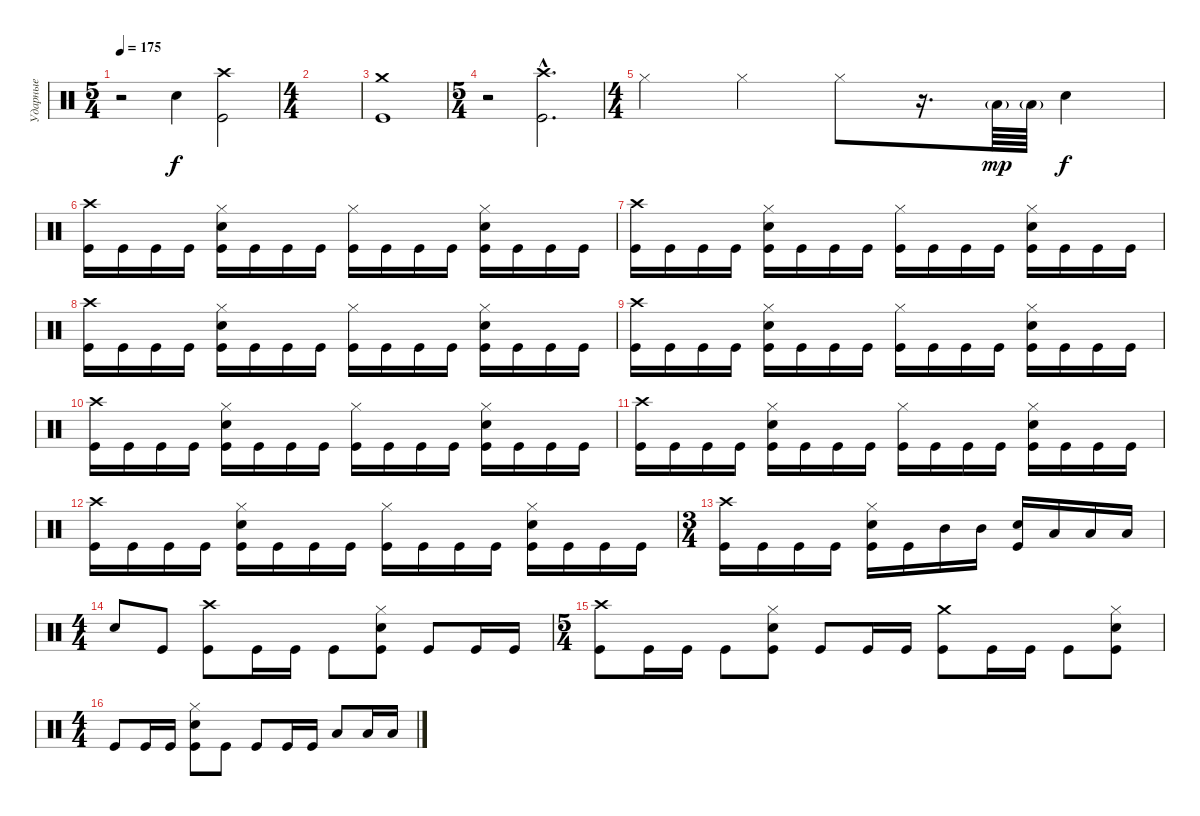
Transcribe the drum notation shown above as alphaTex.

\track ("Ударные" "Ударные") {instrument percussion}
\staff {score}
\articulation defaults
\ts (5 4)
\tempo 175
\clef neutral
\ks c
r.2{dy f} "Electric Snare (hit)".4 ("Crash high (hit)" "Kick (hit)").2 |
\ts (4 4)
|
("Crash medium (hit)" "Kick (hit)").1 |
\ts (5 4)
r.2 ("Crash high (hit)"{hac} "Kick (hit)"{hac}).2{d} |
\ts (4 4)
"Hi-Hat (closed)".4 "Hi-Hat (closed)".4 "Hi-Hat (closed)".8 r.16{d} "Low Tom (hit)"{g}.64{dy mp} "Low Tom (hit)"{g}.64 "Electric Snare (hit)".4{dy f} |
("Crash high (hit)" "Kick (hit)").16 "Kick (hit)".16 "Kick (hit)".16 "Kick (hit)".16 ("Hi-Hat (closed)" "Electric Snare (hit)" "Kick (hit)").16 "Kick (hit)".16 "Kick (hit)".16 "Kick (hit)".16 ("Hi-Hat (closed)" "Kick (hit)").16 "Kick (hit)".16 "Kick (hit)".16 "Kick (hit)".16 ("Hi-Hat (closed)" "Electric Snare (hit)" "Kick (hit)").16 "Kick (hit)".16 "Kick (hit)".16 "Kick (hit)".16 |
("Crash high (hit)" "Kick (hit)").16 "Kick (hit)".16 "Kick (hit)".16 "Kick (hit)".16 ("Hi-Hat (closed)" "Electric Snare (hit)" "Kick (hit)").16 "Kick (hit)".16 "Kick (hit)".16 "Kick (hit)".16 ("Hi-Hat (closed)" "Kick (hit)").16 "Kick (hit)".16 "Kick (hit)".16 "Kick (hit)".16 ("Hi-Hat (closed)" "Electric Snare (hit)" "Kick (hit)").16 "Kick (hit)".16 "Kick (hit)".16 "Kick (hit)".16 |
("Crash high (hit)" "Kick (hit)").16 "Kick (hit)".16 "Kick (hit)".16 "Kick (hit)".16 ("Hi-Hat (closed)" "Electric Snare (hit)" "Kick (hit)").16 "Kick (hit)".16 "Kick (hit)".16 "Kick (hit)".16 ("Hi-Hat (closed)" "Kick (hit)").16 "Kick (hit)".16 "Kick (hit)".16 "Kick (hit)".16 ("Hi-Hat (closed)" "Electric Snare (hit)" "Kick (hit)").16 "Kick (hit)".16 "Kick (hit)".16 "Kick (hit)".16 |
("Crash high (hit)" "Kick (hit)").16 "Kick (hit)".16 "Kick (hit)".16 "Kick (hit)".16 ("Hi-Hat (closed)" "Electric Snare (hit)" "Kick (hit)").16 "Kick (hit)".16 "Kick (hit)".16 "Kick (hit)".16 ("Hi-Hat (closed)" "Kick (hit)").16 "Kick (hit)".16 "Kick (hit)".16 "Kick (hit)".16 ("Hi-Hat (closed)" "Electric Snare (hit)" "Kick (hit)").16 "Kick (hit)".16 "Kick (hit)".16 "Kick (hit)".16 |
("Crash high (hit)" "Kick (hit)").16 "Kick (hit)".16 "Kick (hit)".16 "Kick (hit)".16 ("Hi-Hat (closed)" "Electric Snare (hit)" "Kick (hit)").16 "Kick (hit)".16 "Kick (hit)".16 "Kick (hit)".16 ("Hi-Hat (closed)" "Kick (hit)").16 "Kick (hit)".16 "Kick (hit)".16 "Kick (hit)".16 ("Hi-Hat (closed)" "Electric Snare (hit)" "Kick (hit)").16 "Kick (hit)".16 "Kick (hit)".16 "Kick (hit)".16 |
("Crash high (hit)" "Kick (hit)").16 "Kick (hit)".16 "Kick (hit)".16 "Kick (hit)".16 ("Hi-Hat (closed)" "Electric Snare (hit)" "Kick (hit)").16 "Kick (hit)".16 "Kick (hit)".16 "Kick (hit)".16 ("Hi-Hat (closed)" "Kick (hit)").16 "Kick (hit)".16 "Kick (hit)".16 "Kick (hit)".16 ("Hi-Hat (closed)" "Electric Snare (hit)" "Kick (hit)").16 "Kick (hit)".16 "Kick (hit)".16 "Kick (hit)".16 |
("Crash high (hit)" "Kick (hit)").16 "Kick (hit)".16 "Kick (hit)".16 "Kick (hit)".16 ("Hi-Hat (closed)" "Electric Snare (hit)" "Kick (hit)").16 "Kick (hit)".16 "Kick (hit)".16 "Kick (hit)".16 ("Hi-Hat (closed)" "Kick (hit)").16 "Kick (hit)".16 "Kick (hit)".16 "Kick (hit)".16 ("Hi-Hat (closed)" "Electric Snare (hit)" "Kick (hit)").16 "Kick (hit)".16 "Kick (hit)".16 "Kick (hit)".16 |
\ts (3 4)
("Crash high (hit)" "Kick (hit)").16 "Kick (hit)".16 "Kick (hit)".16 "Kick (hit)".16 ("Hi-Hat (closed)" "Electric Snare (hit)" "Kick (hit)").16 "Kick (hit)".16 "Mid Tom (hit)".16 "Mid Tom (hit)".16 ("Electric Snare (hit)" "Kick (hit)").16 "Low Tom (hit)".16 "Low Tom (hit)".16 "Low Tom (hit)".16 |
\ts (4 4)
"Electric Snare (hit)".8 "Kick (hit)".8 ("Crash high (hit)" "Kick (hit)").8 "Kick (hit)".16 "Kick (hit)".16 "Kick (hit)".8 ("Hi-Hat (closed)" "Electric Snare (hit)" "Kick (hit)").8 "Kick (hit)".8 "Kick (hit)".16 "Kick (hit)".16 |
\ts (5 4)
("Crash high (hit)" "Kick (hit)").8 "Kick (hit)".16 "Kick (hit)".16 "Kick (hit)".8 ("Hi-Hat (closed)" "Electric Snare (hit)" "Kick (hit)").8 "Kick (hit)".8 "Kick (hit)".16 "Kick (hit)".16 ("Crash medium (hit)" "Kick (hit)").8 "Kick (hit)".16 "Kick (hit)".16 "Kick (hit)".8 ("Hi-Hat (closed)" "Electric Snare (hit)" "Kick (hit)").8 |
\ts (4 4)
"Kick (hit)".8 "Kick (hit)".16 "Kick (hit)".16 ("Hi-Hat (closed)" "Electric Snare (hit)" "Kick (hit)").8 "Kick (hit)".8 "Kick (hit)".8 "Kick (hit)".16 "Kick (hit)".16 "Low Tom (hit)".8 "Low Tom (hit)".16 "Low Tom (hit)".16
